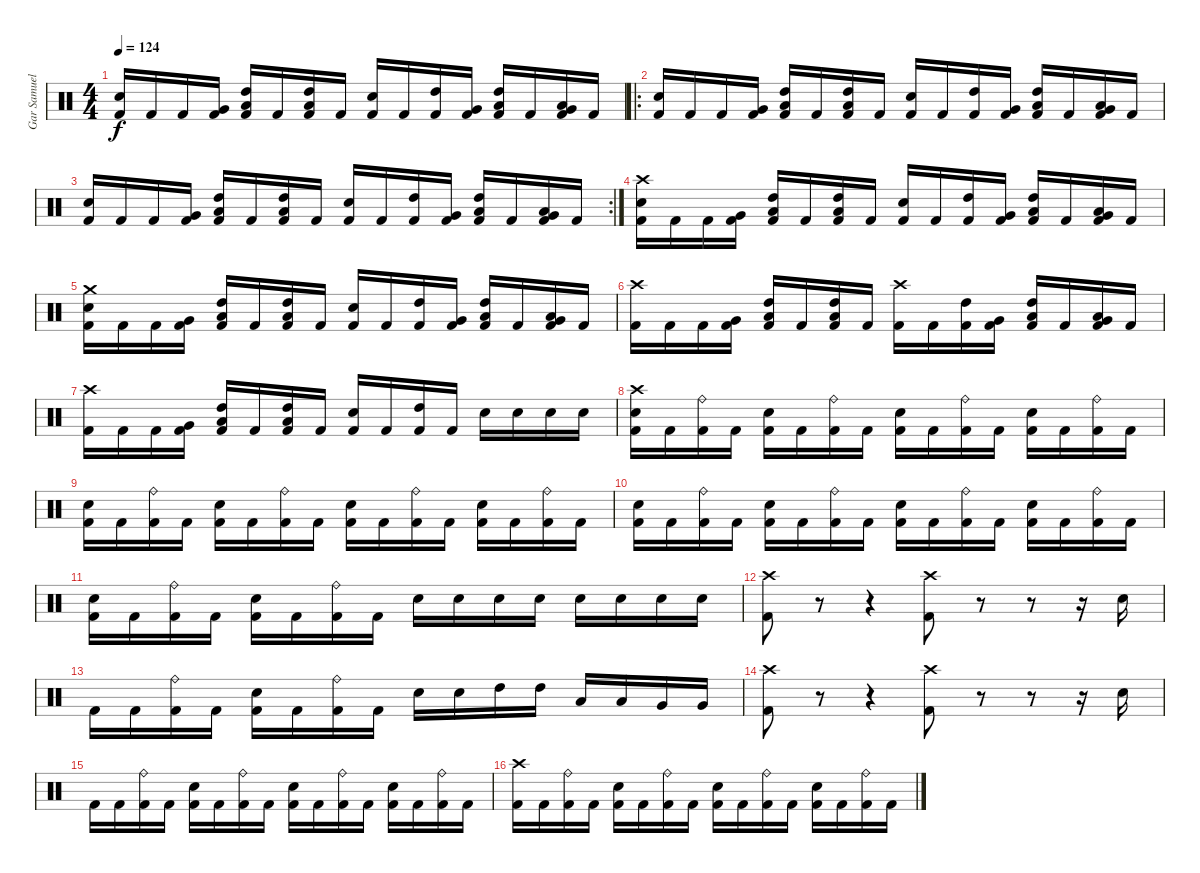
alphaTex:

\track ("Gar Samuelson" "Gar Samuel") {instrument percussion}
\staff {score}
\articulation defaults
\ts (4 4)
\tempo 124
\clef neutral
\ks c
("Electric Snare (hit)" "Kick (hit) 2").16{dy f} "Kick (hit) 2".16 "Kick (hit) 2".16 ("Very Low Tom (hit)" "Kick (hit) 2").16 ("High Tom (hit)" "Low Tom (hit)" "Kick (hit) 2").16 "Kick (hit) 2".16 ("High Tom (hit)" "Low Tom (hit)" "Kick (hit) 2").16 "Kick (hit) 2".16 ("Electric Snare (hit)" "Kick (hit) 2").16 "Kick (hit) 2".16 ("High Tom (hit)" "Kick (hit) 2").16 ("Very Low Tom (hit)" "Kick (hit) 2").16 ("High Tom (hit)" "Low Tom (hit)" "Kick (hit) 2").16 "Kick (hit) 2".16 ("Low Tom (hit)" "Very Low Tom (hit)" "Kick (hit) 2").16 "Kick (hit) 2".16 |
\ro
("Electric Snare (hit)" "Kick (hit) 2").16 "Kick (hit) 2".16 "Kick (hit) 2".16 ("Very Low Tom (hit)" "Kick (hit) 2").16 ("High Tom (hit)" "Low Tom (hit)" "Kick (hit) 2").16 "Kick (hit) 2".16 ("High Tom (hit)" "Low Tom (hit)" "Kick (hit) 2").16 "Kick (hit) 2".16 ("Electric Snare (hit)" "Kick (hit) 2").16 "Kick (hit) 2".16 ("High Tom (hit)" "Kick (hit) 2").16 ("Very Low Tom (hit)" "Kick (hit) 2").16 ("High Tom (hit)" "Low Tom (hit)" "Kick (hit) 2").16 "Kick (hit) 2".16 ("Low Tom (hit)" "Very Low Tom (hit)" "Kick (hit) 2").16 "Kick (hit) 2".16 |
\rc 2
("Electric Snare (hit)" "Kick (hit) 2").16 "Kick (hit) 2".16 "Kick (hit) 2".16 ("Very Low Tom (hit)" "Kick (hit) 2").16 ("High Tom (hit)" "Low Tom (hit)" "Kick (hit) 2").16 "Kick (hit) 2".16 ("High Tom (hit)" "Low Tom (hit)" "Kick (hit) 2").16 "Kick (hit) 2".16 ("Electric Snare (hit)" "Kick (hit) 2").16 "Kick (hit) 2".16 ("High Tom (hit)" "Kick (hit) 2").16 ("Very Low Tom (hit)" "Kick (hit) 2").16 ("High Tom (hit)" "Low Tom (hit)" "Kick (hit) 2").16 "Kick (hit) 2".16 ("Low Tom (hit)" "Very Low Tom (hit)" "Kick (hit) 2").16 "Kick (hit) 2".16 |
("Crash high (hit)" "Electric Snare (hit)" "Kick (hit) 2").16 "Kick (hit) 2".16 "Kick (hit) 2".16 ("Very Low Tom (hit)" "Kick (hit) 2").16 ("High Tom (hit)" "Low Tom (hit)" "Kick (hit) 2").16 "Kick (hit) 2".16 ("High Tom (hit)" "Low Tom (hit)" "Kick (hit) 2").16 "Kick (hit) 2".16 ("Electric Snare (hit)" "Kick (hit) 2").16 "Kick (hit) 2".16 ("High Tom (hit)" "Kick (hit) 2").16 ("Very Low Tom (hit)" "Kick (hit) 2").16 ("High Tom (hit)" "Low Tom (hit)" "Kick (hit) 2").16 "Kick (hit) 2".16 ("Low Tom (hit)" "Very Low Tom (hit)" "Kick (hit) 2").16 "Kick (hit) 2".16 |
("Crash medium (hit)" "Electric Snare (hit)" "Kick (hit) 2").16 "Kick (hit) 2".16 "Kick (hit) 2".16 ("Very Low Tom (hit)" "Kick (hit) 2").16 ("High Tom (hit)" "Low Tom (hit)" "Kick (hit) 2").16 "Kick (hit) 2".16 ("High Tom (hit)" "Low Tom (hit)" "Kick (hit) 2").16 "Kick (hit) 2".16 ("Electric Snare (hit)" "Kick (hit) 2").16 "Kick (hit) 2".16 ("High Tom (hit)" "Kick (hit) 2").16 ("Very Low Tom (hit)" "Kick (hit) 2").16 ("High Tom (hit)" "Low Tom (hit)" "Kick (hit) 2").16 "Kick (hit) 2".16 ("Low Tom (hit)" "Very Low Tom (hit)" "Kick (hit) 2").16 "Kick (hit) 2".16 |
("Crash high (hit)" "Kick (hit) 2").16 "Kick (hit) 2".16 "Kick (hit) 2".16 ("Very Low Tom (hit)" "Kick (hit) 2").16 ("High Tom (hit)" "Low Tom (hit)" "Kick (hit) 2").16 "Kick (hit) 2".16 ("High Tom (hit)" "Low Tom (hit)" "Kick (hit) 2").16 "Kick (hit) 2".16 ("Crash high (hit)" "Kick (hit) 2").16 "Kick (hit) 2".16 ("High Tom (hit)" "Kick (hit) 2").16 ("Very Low Tom (hit)" "Kick (hit) 2").16 ("High Tom (hit)" "Low Tom (hit)" "Kick (hit) 2").16 "Kick (hit) 2".16 ("Low Tom (hit)" "Very Low Tom (hit)" "Kick (hit) 2").16 "Kick (hit) 2".16 |
("Crash high (hit)" "Kick (hit) 2").16 "Kick (hit) 2".16 "Kick (hit) 2".16 ("Very Low Tom (hit)" "Kick (hit) 2").16 ("High Tom (hit)" "Low Tom (hit)" "Kick (hit) 2").16 "Kick (hit) 2".16 ("High Tom (hit)" "Low Tom (hit)" "Kick (hit) 2").16 "Kick (hit) 2".16 ("Electric Snare (hit)" "Kick (hit) 2").16 "Kick (hit) 2".16 ("High Tom (hit)" "Kick (hit) 2").16 "Kick (hit) 2".16 "Electric Snare (hit)".16 "Electric Snare (hit)".16 "Electric Snare (hit)".16 "Electric Snare (hit)".16 |
("Crash high (hit)" "Electric Snare (hit)" "Kick (hit) 2").16 "Kick (hit) 2".16 ("Ride (bell)" "Kick (hit) 2").16 "Kick (hit) 2".16 ("Electric Snare (hit)" "Kick (hit) 2").16 "Kick (hit) 2".16 ("Ride (bell)" "Kick (hit) 2").16 "Kick (hit) 2".16 ("Electric Snare (hit)" "Kick (hit) 2").16 "Kick (hit) 2".16 ("Ride (bell)" "Kick (hit) 2").16 "Kick (hit) 2".16 ("Electric Snare (hit)" "Kick (hit) 2").16 "Kick (hit) 2".16 ("Ride (bell)" "Kick (hit) 2").16 "Kick (hit) 2".16 |
("Electric Snare (hit)" "Kick (hit) 2").16 "Kick (hit) 2".16 ("Ride (bell)" "Kick (hit) 2").16 "Kick (hit) 2".16 ("Electric Snare (hit)" "Kick (hit) 2").16 "Kick (hit) 2".16 ("Ride (bell)" "Kick (hit) 2").16 "Kick (hit) 2".16 ("Electric Snare (hit)" "Kick (hit) 2").16 "Kick (hit) 2".16 ("Ride (bell)" "Kick (hit) 2").16 "Kick (hit) 2".16 ("Electric Snare (hit)" "Kick (hit) 2").16 "Kick (hit) 2".16 ("Ride (bell)" "Kick (hit) 2").16 "Kick (hit) 2".16 |
("Electric Snare (hit)" "Kick (hit) 2").16 "Kick (hit) 2".16 ("Ride (bell)" "Kick (hit) 2").16 "Kick (hit) 2".16 ("Electric Snare (hit)" "Kick (hit) 2").16 "Kick (hit) 2".16 ("Ride (bell)" "Kick (hit) 2").16 "Kick (hit) 2".16 ("Electric Snare (hit)" "Kick (hit) 2").16 "Kick (hit) 2".16 ("Ride (bell)" "Kick (hit) 2").16 "Kick (hit) 2".16 ("Electric Snare (hit)" "Kick (hit) 2").16 "Kick (hit) 2".16 ("Ride (bell)" "Kick (hit) 2").16 "Kick (hit) 2".16 |
("Electric Snare (hit)" "Kick (hit) 2").16 "Kick (hit) 2".16 ("Ride (bell)" "Kick (hit) 2").16 "Kick (hit) 2".16 ("Electric Snare (hit)" "Kick (hit) 2").16 "Kick (hit) 2".16 ("Ride (bell)" "Kick (hit) 2").16 "Kick (hit) 2".16 "Electric Snare (hit)".16 "Electric Snare (hit)".16 "Electric Snare (hit)".16 "Electric Snare (hit)".16 "Electric Snare (hit)".16 "Electric Snare (hit)".16 "Electric Snare (hit)".16 "Electric Snare (hit)".16 |
("Crash high (hit)" "Kick (hit) 2").8 r.8 r.4 ("Crash high (hit)" "Kick (hit) 2").8 r.8 r.8 r.16 "Electric Snare (hit)".16 |
"Kick (hit) 2".16 "Kick (hit) 2".16 ("Ride (bell)" "Kick (hit) 2").16 "Kick (hit) 2".16 ("Electric Snare (hit)" "Kick (hit) 2").16 "Kick (hit) 2".16 ("Ride (bell)" "Kick (hit) 2").16 "Kick (hit) 2".16 "Electric Snare (hit)".16 "Electric Snare (hit)".16 "High Tom (hit)".16 "High Tom (hit)".16 "Low Tom (hit)".16 "Low Tom (hit)".16 "Very Low Tom (hit)".16 "Very Low Tom (hit)".16 |
("Crash high (hit)" "Kick (hit) 2").8 r.8 r.4 ("Crash high (hit)" "Kick (hit) 2").8 r.8 r.8 r.16 "Electric Snare (hit)".16 |
"Kick (hit) 2".16 "Kick (hit) 2".16 ("Ride (bell)" "Kick (hit) 2").16 "Kick (hit) 2".16 ("Electric Snare (hit)" "Kick (hit) 2").16 "Kick (hit) 2".16 ("Ride (bell)" "Kick (hit) 2").16 "Kick (hit) 2".16 ("Electric Snare (hit)" "Kick (hit) 2").16 "Kick (hit) 2".16 ("Ride (bell)" "Kick (hit) 2").16 "Kick (hit) 2".16 ("Electric Snare (hit)" "Kick (hit) 2").16 "Kick (hit) 2".16 ("Ride (bell)" "Kick (hit) 2").16 "Kick (hit) 2".16 |
("Crash high (hit)" "Kick (hit) 2").16 "Kick (hit) 2".16 ("Ride (bell)" "Kick (hit) 2").16 "Kick (hit) 2".16 ("Electric Snare (hit)" "Kick (hit) 2").16 "Kick (hit) 2".16 ("Ride (bell)" "Kick (hit) 2").16 "Kick (hit) 2".16 ("Electric Snare (hit)" "Kick (hit) 2").16 "Kick (hit) 2".16 ("Ride (bell)" "Kick (hit) 2").16 "Kick (hit) 2".16 ("Electric Snare (hit)" "Kick (hit) 2").16 "Kick (hit) 2".16 ("Ride (bell)" "Kick (hit) 2").16 "Kick (hit) 2".16
